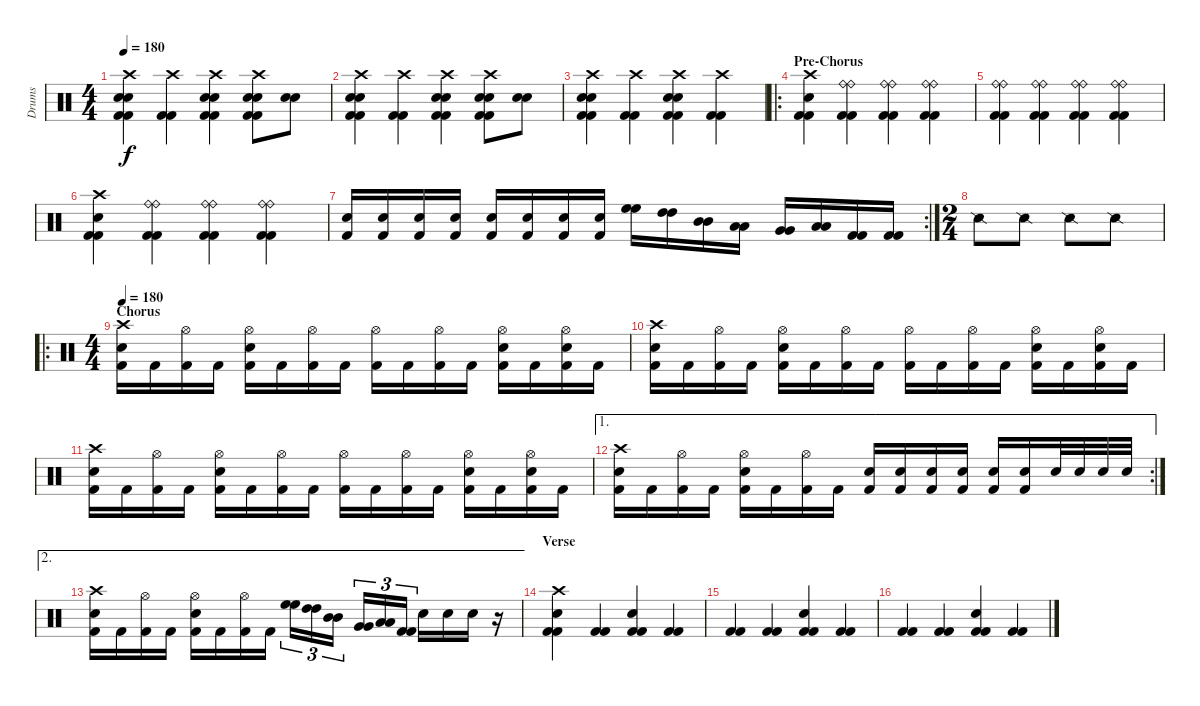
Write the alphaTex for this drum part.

\track ("Drums" "Drums") {instrument percussion}
\staff {score}
\articulation defaults
\ts (4 4)
\tempo 180
\clef neutral
\ks c
("Crash high (hit)" "Snare (hit) 2" "Snare (hit) 2" "Kick (hit) 2" "Kick (hit) 2").4{dy f} ("Crash high (hit)" "Kick (hit) 2" "Kick (hit) 2").4 ("Crash high (hit)" "Snare (hit) 2" "Snare (hit) 2" "Kick (hit) 2" "Kick (hit) 2").4 ("Crash high (hit)" "Snare (hit) 2" "Snare (hit) 2" "Kick (hit) 2" "Kick (hit) 2").8 ("Snare (hit) 2" "Snare (hit) 2").8 |
("Crash high (hit)" "Snare (hit) 2" "Snare (hit) 2" "Kick (hit) 2" "Kick (hit) 2").4 ("Crash high (hit)" "Kick (hit) 2" "Kick (hit) 2").4 ("Crash high (hit)" "Snare (hit) 2" "Snare (hit) 2" "Kick (hit) 2" "Kick (hit) 2").4 ("Crash high (hit)" "Snare (hit) 2" "Snare (hit) 2" "Kick (hit) 2" "Kick (hit) 2").8 ("Snare (hit) 2" "Snare (hit) 2").8 |
("Crash high (hit)" "Snare (hit) 2" "Snare (hit) 2" "Kick (hit) 2" "Kick (hit) 2").4 ("Crash high (hit)" "Kick (hit) 2" "Kick (hit) 2").4 ("Crash high (hit)" "Snare (hit) 2" "Snare (hit) 2" "Kick (hit) 2" "Kick (hit) 2").4 ("Crash high (hit)" "Kick (hit) 2" "Kick (hit) 2").4 |
\ro
\section ("" "Pre-Chorus")
("Crash high (hit)" "Snare (hit) 2" "Kick (hit) 2" "Kick (hit) 2").4 ("Ride (bell)" "Ride (bell)" "Kick (hit) 2" "Kick (hit) 2").4 ("Ride (bell)" "Ride (bell)" "Kick (hit) 2" "Kick (hit) 2").4 ("Ride (bell)" "Ride (bell)" "Kick (hit) 2" "Kick (hit) 2").4 |
("Ride (bell)" "Ride (bell)" "Kick (hit) 2" "Kick (hit) 2").4 ("Ride (bell)" "Ride (bell)" "Kick (hit) 2" "Kick (hit) 2").4 ("Ride (bell)" "Ride (bell)" "Kick (hit) 2" "Kick (hit) 2").4 ("Ride (bell)" "Ride (bell)" "Kick (hit) 2" "Kick (hit) 2").4 |
("Crash high (hit)" "Snare (hit) 2" "Kick (hit) 2" "Kick (hit) 2").4 ("Ride (bell)" "Ride (bell)" "Kick (hit) 2" "Kick (hit) 2").4 ("Ride (bell)" "Ride (bell)" "Kick (hit) 2" "Kick (hit) 2").4 ("Ride (bell)" "Ride (bell)" "Kick (hit) 2" "Kick (hit) 2").4 |
\rc 2
("Snare (hit) 2" "Kick (hit) 2").16 ("Snare (hit) 2" "Kick (hit) 2").16 ("Snare (hit) 2" "Kick (hit) 2").16 ("Snare (hit) 2" "Kick (hit) 2").16 ("Snare (hit) 2" "Kick (hit) 2").16 ("Snare (hit) 2" "Kick (hit) 2").16 ("Snare (hit) 2" "Kick (hit) 2").16 ("Snare (hit) 2" "Kick (hit) 2").16 ("High Floor Tom (hit)" "High Floor Tom (hit)").16 ("High Tom (hit)" "High Tom (hit)").16 ("Mid Tom (hit)" "Mid Tom (hit)").16 ("Low Tom (hit)" "Low Tom (hit)").16 ("Very Low Tom (hit)" "Very Low Tom (hit)").16 ("Low Floor Tom (hit)" "Low Floor Tom (hit)").16 ("Kick (hit) 2" "Kick (hit) 2").16 ("Kick (hit) 2" "Kick (hit) 2").16 |
\ts (2 4)
"Snare (side stick) 2".8 "Snare (side stick) 2".8 "Snare (side stick) 2".8 "Snare (side stick) 2".8 |
\ro
\ts (4 4)
\section ("" "Chorus")
\tempo 180
("Crash high (hit)" "Snare (hit) 2" "Kick (hit) 2").16 "Kick (hit) 2".16 ("Hi-Hat (open)" "Kick (hit) 2").16 "Kick (hit) 2".16 ("Hi-Hat (open)" "Snare (hit) 2" "Kick (hit) 2").16 "Kick (hit) 2".16 ("Hi-Hat (open)" "Kick (hit) 2").16 "Kick (hit) 2".16 ("Hi-Hat (open)" "Kick (hit) 2").16 "Kick (hit) 2".16 ("Hi-Hat (open)" "Kick (hit) 2").16 "Kick (hit) 2".16 ("Hi-Hat (open)" "Snare (hit) 2" "Kick (hit) 2").16 "Kick (hit) 2".16 ("Hi-Hat (open)" "Snare (hit) 2" "Kick (hit) 2").16 "Kick (hit) 2".16 |
("Crash high (hit)" "Snare (hit) 2" "Kick (hit) 2").16 "Kick (hit) 2".16 ("Hi-Hat (open)" "Kick (hit) 2").16 "Kick (hit) 2".16 ("Hi-Hat (open)" "Snare (hit) 2" "Kick (hit) 2").16 "Kick (hit) 2".16 ("Hi-Hat (open)" "Kick (hit) 2").16 "Kick (hit) 2".16 ("Hi-Hat (open)" "Kick (hit) 2").16 "Kick (hit) 2".16 ("Hi-Hat (open)" "Kick (hit) 2").16 "Kick (hit) 2".16 ("Hi-Hat (open)" "Snare (hit) 2" "Kick (hit) 2").16 "Kick (hit) 2".16 ("Hi-Hat (open)" "Snare (hit) 2" "Kick (hit) 2").16 "Kick (hit) 2".16 |
("Crash high (hit)" "Snare (hit) 2" "Kick (hit) 2").16 "Kick (hit) 2".16 ("Hi-Hat (open)" "Kick (hit) 2").16 "Kick (hit) 2".16 ("Hi-Hat (open)" "Snare (hit) 2" "Kick (hit) 2").16 "Kick (hit) 2".16 ("Hi-Hat (open)" "Kick (hit) 2").16 "Kick (hit) 2".16 ("Hi-Hat (open)" "Kick (hit) 2").16 "Kick (hit) 2".16 ("Hi-Hat (open)" "Kick (hit) 2").16 "Kick (hit) 2".16 ("Hi-Hat (open)" "Snare (hit) 2" "Kick (hit) 2").16 "Kick (hit) 2".16 ("Hi-Hat (open)" "Snare (hit) 2" "Kick (hit) 2").16 "Kick (hit) 2".16 |
\ae 1
\rc 2
("Crash high (hit)" "Snare (hit) 2" "Kick (hit) 2").16 "Kick (hit) 2".16 ("Hi-Hat (open)" "Kick (hit) 2").16 "Kick (hit) 2".16 ("Hi-Hat (open)" "Snare (hit) 2" "Kick (hit) 2").16 "Kick (hit) 2".16 ("Hi-Hat (open)" "Kick (hit) 2").16 "Kick (hit) 2".16 ("Snare (hit) 2" "Kick (hit) 2").16 ("Snare (hit) 2" "Kick (hit) 2").16 ("Snare (hit) 2" "Kick (hit) 2").16 ("Snare (hit) 2" "Kick (hit) 2").16 ("Snare (hit) 2" "Kick (hit) 2").16 ("Snare (hit) 2" "Kick (hit) 2").16 "Snare (hit) 2".32 "Snare (hit) 2".32 "Snare (hit) 2".32 "Snare (hit) 2".32 |
\ae 2
("Crash high (hit)" "Snare (hit) 2" "Kick (hit) 2").16 "Kick (hit) 2".16 ("Hi-Hat (open)" "Kick (hit) 2").16 "Kick (hit) 2".16 ("Hi-Hat (open)" "Snare (hit) 2" "Kick (hit) 2").16 "Kick (hit) 2".16 ("Hi-Hat (open)" "Kick (hit) 2").16 "Kick (hit) 2".16 ("High Floor Tom (hit)" "High Floor Tom (hit)").16{tu (3 2)} ("High Tom (hit)" "High Tom (hit)").16{tu (3 2)} ("Mid Tom (hit)" "Mid Tom (hit)").16{tu (3 2)} ("Very Low Tom (hit)" "Very Low Tom (hit)").16{tu (3 2)} ("Low Floor Tom (hit)" "Low Floor Tom (hit)").16{tu (3 2)} ("Kick (hit) 2" "Kick (hit) 2").16{tu (3 2)} "Snare (hit) 2".16 "Snare (hit) 2".16 "Snare (hit) 2".16 r.16 |
\section ("" "Verse")
("Snare (hit) 2" "Crash high (hit)" "Kick (hit) 2" "Kick (hit) 2").4 ("Kick (hit) 2" "Kick (hit) 2").4 ("Snare (hit) 2" "Kick (hit) 2" "Kick (hit) 2").4 ("Kick (hit) 2" "Kick (hit) 2").4 |
("Kick (hit) 2" "Kick (hit) 2").4 ("Kick (hit) 2" "Kick (hit) 2").4 ("Snare (hit) 2" "Kick (hit) 2" "Kick (hit) 2").4 ("Kick (hit) 2" "Kick (hit) 2").4 |
("Kick (hit) 2" "Kick (hit) 2").4 ("Kick (hit) 2" "Kick (hit) 2").4 ("Snare (hit) 2" "Kick (hit) 2" "Kick (hit) 2").4 ("Kick (hit) 2" "Kick (hit) 2").4
